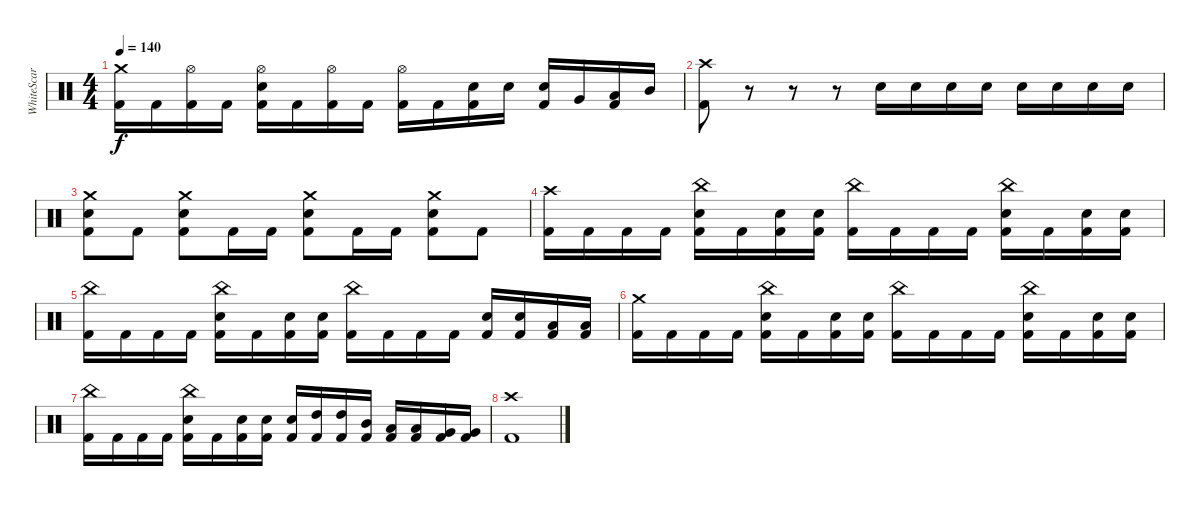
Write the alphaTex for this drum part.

\track ("WhiteScar " "WhiteScar ") {instrument percussion}
\staff {score}
\articulation defaults
\ts (4 4)
\tempo 140
\clef neutral
\ks c
("Crash medium (hit)" "Kick (hit) 2").16{dy f} "Kick (hit) 2".16 ("Hi-Hat (open)" "Kick (hit) 2").16 "Kick (hit) 2".16 ("Hi-Hat (open)" "Snare (hit) 2" "Kick (hit) 2").16 "Kick (hit) 2".16 ("Hi-Hat (open)" "Kick (hit) 2").16 "Kick (hit) 2".16 ("Hi-Hat (open)" "Kick (hit) 2").16 "Kick (hit) 2".16 ("Snare (hit) 2" "Kick (hit) 2").16 "Snare (hit) 2".16 ("Snare (hit) 2" "Kick (hit) 2").16 "Very Low Tom (hit)".16 ("Low Tom (hit)" "Kick (hit) 2").16 "Mid Tom (hit)".16 |
("Crash high (hit)" "Kick (hit) 2").8 r.8 r.8 r.8 "Snare (hit) 2".16{volume 6} "Snare (hit) 2".16{volume 7} "Snare (hit) 2".16{volume 8} "Snare (hit) 2".16{volume 9} "Snare (hit) 2".16{volume 10} "Snare (hit) 2".16{volume 11} "Snare (hit) 2".16{volume 12} "Snare (hit) 2".16 |
("Snare (hit) 2" "Crash medium (hit)" "Kick (hit) 2").8 "Kick (hit) 2".8 ("Snare (hit) 2" "Crash medium (hit)" "Kick (hit) 2").8 "Kick (hit) 2".16 "Kick (hit) 2".16 ("Snare (hit) 2" "Crash medium (hit)" "Kick (hit) 2").8 "Kick (hit) 2".16 "Kick (hit) 2".16 ("Snare (hit) 2" "Crash medium (hit)" "Kick (hit) 2").8 "Kick (hit) 2".8 |
("Crash high (hit)" "Kick (hit) 2").16 "Kick (hit) 2".16 "Kick (hit) 2".16 "Kick (hit) 2".16 ("China (hit)" "Snare (hit) 2" "Kick (hit) 2").16 "Kick (hit) 2".16 ("Snare (hit) 2" "Kick (hit) 2").16 ("Snare (hit) 2" "Kick (hit) 2").16 ("China (hit)" "Kick (hit) 2").16 "Kick (hit) 2".16 "Kick (hit) 2".16 "Kick (hit) 2".16 ("China (hit)" "Snare (hit) 2" "Kick (hit) 2").16 "Kick (hit) 2".16 ("Snare (hit) 2" "Kick (hit) 2").16 ("Snare (hit) 2" "Kick (hit) 2").16 |
("China (hit)" "Kick (hit) 2").16 "Kick (hit) 2".16 "Kick (hit) 2".16 "Kick (hit) 2".16 ("China (hit)" "Snare (hit) 2" "Kick (hit) 2").16 "Kick (hit) 2".16 ("Snare (hit) 2" "Kick (hit) 2").16 ("Snare (hit) 2" "Kick (hit) 2").16 ("China (hit)" "Kick (hit) 2").16 "Kick (hit) 2".16 "Kick (hit) 2".16 "Kick (hit) 2".16 ("Snare (hit) 2" "Kick (hit) 2").16 ("Snare (hit) 2" "Kick (hit) 2").16 ("Low Tom (hit)" "Kick (hit) 2").16 ("Low Tom (hit)" "Kick (hit) 2").16 |
("Crash medium (hit)" "Kick (hit) 2").16 "Kick (hit) 2".16 "Kick (hit) 2".16 "Kick (hit) 2".16 ("China (hit)" "Snare (hit) 2" "Kick (hit) 2").16 "Kick (hit) 2".16 ("Snare (hit) 2" "Kick (hit) 2").16 ("Snare (hit) 2" "Kick (hit) 2").16 ("China (hit)" "Kick (hit) 2").16 "Kick (hit) 2".16 "Kick (hit) 2".16 "Kick (hit) 2".16 ("China (hit)" "Snare (hit) 2" "Kick (hit) 2").16 "Kick (hit) 2".16 ("Snare (hit) 2" "Kick (hit) 2").16 ("Snare (hit) 2" "Kick (hit) 2").16 |
("China (hit)" "Kick (hit) 2").16 "Kick (hit) 2".16 "Kick (hit) 2".16 "Kick (hit) 2".16 ("China (hit)" "Snare (hit) 2" "Kick (hit) 2").16 "Kick (hit) 2".16 ("Snare (hit) 2" "Kick (hit) 2").16 ("Snare (hit) 2" "Kick (hit) 2").16 ("Snare (hit) 2" "Kick (hit) 2").16 ("High Tom (hit)" "Kick (hit) 2").16 ("High Tom (hit)" "Kick (hit) 2").16 ("Mid Tom (hit)" "Kick (hit) 2").16 ("Low Tom (hit)" "Kick (hit) 2").16 ("Low Tom (hit)" "Kick (hit) 2").16 ("Very Low Tom (hit)" "Kick (hit) 2").16 ("Very Low Tom (hit)" "Kick (hit) 2").16 |
("Crash high (hit)" "Kick (hit) 2").1
